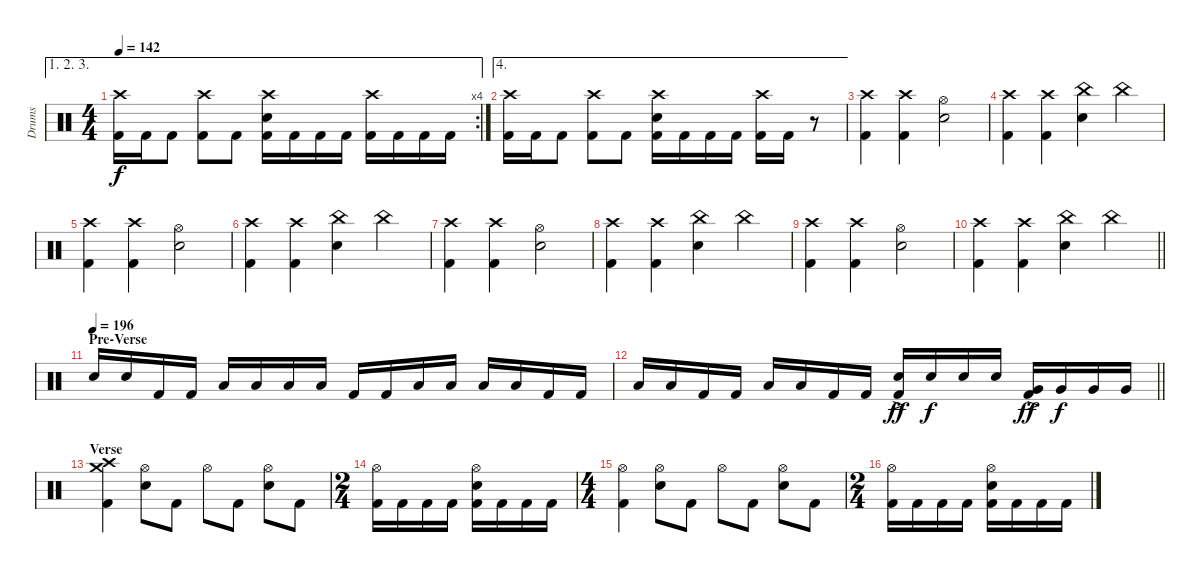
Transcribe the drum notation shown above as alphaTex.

\track ("Drums" "Drums") {instrument percussion}
\staff {score}
\articulation defaults
\ae (1 2 3)
\rc 4
\ts (4 4)
\tempo 142
\clef neutral
\ks c
("Crash high (hit)" "Kick (hit) 2").16{dy f} "Kick (hit) 2".16 "Kick (hit) 2".8 ("Crash high (hit)" "Kick (hit) 2").8 "Kick (hit) 2".8 ("Crash high (hit)" "Electric Snare (hit)" "Kick (hit) 2").16 "Kick (hit) 2".16 "Kick (hit) 2".16 "Kick (hit) 2".16 ("Crash high (hit)" "Kick (hit) 2").16 "Kick (hit) 2".16 "Kick (hit) 2".16 "Kick (hit) 2".16 |
\ae 4
("Crash high (hit)" "Kick (hit) 2").16 "Kick (hit) 2".16 "Kick (hit) 2".8 ("Crash high (hit)" "Kick (hit) 2").8 "Kick (hit) 2".8 ("Crash high (hit)" "Electric Snare (hit)" "Kick (hit) 2").16 "Kick (hit) 2".16 "Kick (hit) 2".16 "Kick (hit) 2".16 ("Crash high (hit)" "Kick (hit) 2").16 "Kick (hit) 2".16 r.8{volume 0} |
("Crash high (hit)" "Kick (hit) 2").4{volume 14} ("Crash high (hit)" "Kick (hit) 2").4 ("Hi-Hat (open)" "Electric Snare (hit)").2 |
("Crash high (hit)" "Kick (hit) 2").4 ("Crash high (hit)" "Kick (hit) 2").4 ("China (hit)" "Electric Snare (hit)").4 "China (hit)".4 |
("Crash high (hit)" "Kick (hit) 2").4 ("Crash high (hit)" "Kick (hit) 2").4 ("Hi-Hat (open)" "Electric Snare (hit)").2 |
("Crash high (hit)" "Kick (hit) 2").4 ("Crash high (hit)" "Kick (hit) 2").4 ("China (hit)" "Electric Snare (hit)").4 "China (hit)".4 |
("Crash high (hit)" "Kick (hit) 2").4 ("Crash high (hit)" "Kick (hit) 2").4 ("Hi-Hat (open)" "Electric Snare (hit)").2 |
("Crash high (hit)" "Kick (hit) 2").4 ("Crash high (hit)" "Kick (hit) 2").4 ("China (hit)" "Electric Snare (hit)").4 "China (hit)".4 |
("Crash high (hit)" "Kick (hit) 2").4 ("Crash high (hit)" "Kick (hit) 2").4 ("Hi-Hat (open)" "Electric Snare (hit)").2 |
\barLineRight lightlight
("Crash high (hit)" "Kick (hit) 2").4 ("Crash high (hit)" "Kick (hit) 2").4 ("China (hit)" "Electric Snare (hit)").4 "China (hit)".4 |
\section ("" "Pre-Verse")
\tempo (196)
"Electric Snare (hit)".16 "Electric Snare (hit)".16 "Kick (hit) 2".16 "Kick (hit) 2".16 "Low Tom (hit)".16 "Low Tom (hit)".16 "Low Tom (hit)".16 "Low Tom (hit)".16 "Kick (hit) 2".16 "Kick (hit) 2".16 "Low Tom (hit)".16 "Low Tom (hit)".16 "Low Tom (hit)".16 "Low Tom (hit)".16 "Kick (hit) 2".16 "Kick (hit) 2".16 |
\barLineRight lightlight "Low Tom (hit)".16 "Low Tom (hit)".16 "Kick (hit) 2".16 "Kick (hit) 2".16 "Low Tom (hit)".16 "Low Tom (hit)".16 "Kick (hit) 2".16 "Kick (hit) 2".16
("Electric Snare (hit)"{ac} "Kick (hit) 2").16{dy ff} "Electric Snare (hit)".16{dy f} "Electric Snare (hit)".16 "Electric Snare (hit)".16 ("Very Low Tom (hit)"{ac} "Kick (hit) 2").16{dy ff} "Very Low Tom (hit)".16{dy f} "Very Low Tom (hit)".16 "Very Low Tom (hit)".16 |
\section ("" "Verse")
("Crash medium (hit)" "Crash high (hit)" "Kick (hit) 2").4 ("Hi-Hat (open)" "Electric Snare (hit)").8 "Kick (hit) 2".8 "Hi-Hat (open)".8 "Kick (hit) 2".8 ("Hi-Hat (open)" "Electric Snare (hit)").8 "Kick (hit) 2".8 |
\ts (2 4)
("Hi-Hat (open)" "Kick (hit) 2").16 "Kick (hit) 2".16 "Kick (hit) 2".16 "Kick (hit) 2".16 ("Hi-Hat (open)" "Electric Snare (hit)" "Kick (hit) 2").16 "Kick (hit) 2".16 "Kick (hit) 2".16 "Kick (hit) 2".16 |
\ts (4 4)
("Hi-Hat (open)" "Kick (hit) 2").4 ("Hi-Hat (open)" "Electric Snare (hit)").8 "Kick (hit) 2".8 "Hi-Hat (open)".8 "Kick (hit) 2".8 ("Hi-Hat (open)" "Electric Snare (hit)").8 "Kick (hit) 2".8 |
\ts (2 4)
("Hi-Hat (open)" "Kick (hit) 2").16 "Kick (hit) 2".16 "Kick (hit) 2".16 "Kick (hit) 2".16 ("Hi-Hat (open)" "Electric Snare (hit)" "Kick (hit) 2").16 "Kick (hit) 2".16 "Kick (hit) 2".16 "Kick (hit) 2".16
